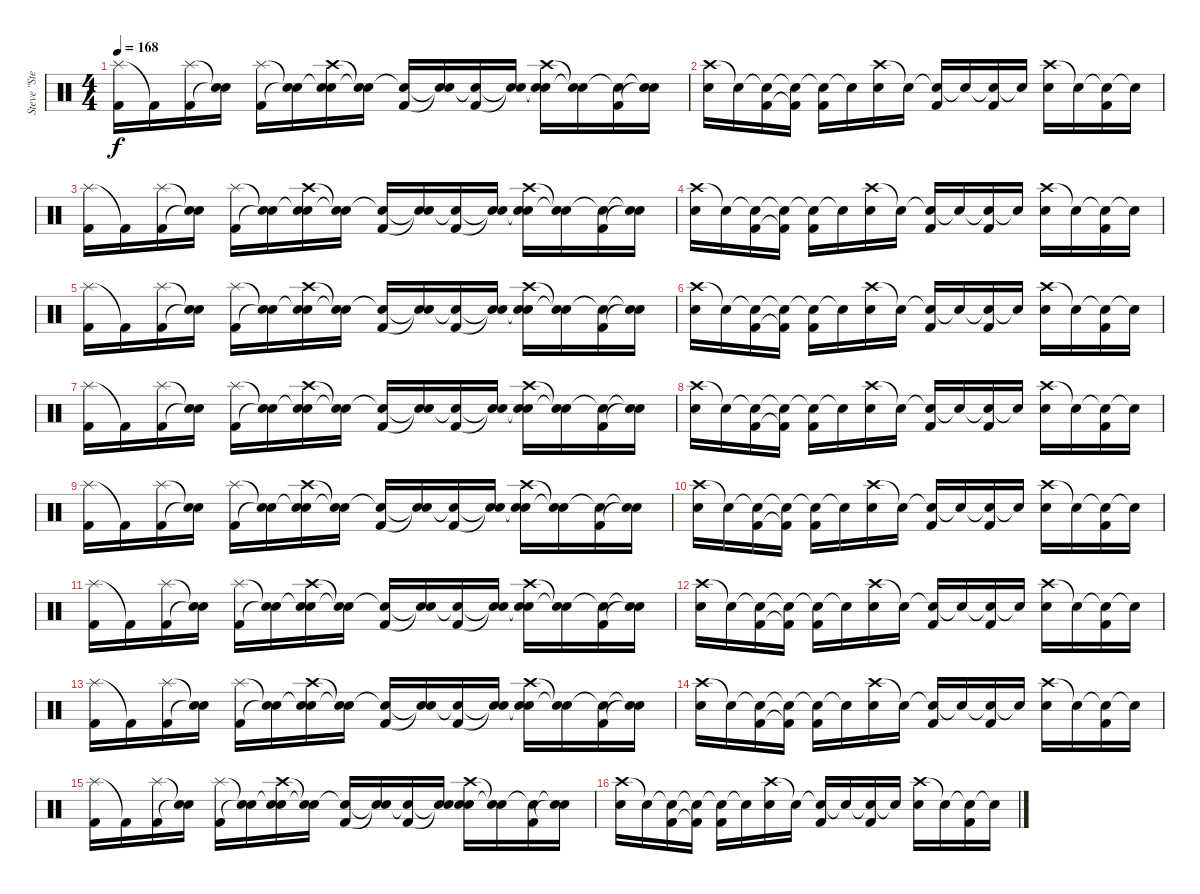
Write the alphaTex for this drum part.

\track ("Steve \"Stevo 32\" Jocz" "Steve \"Ste") {instrument percussion}
\staff {score}
\articulation defaults
\ts (4 4)
\tempo 168
\clef neutral
\ks c
("Splash (hit)" "Kick (hit) 2").16{dy f} "Kick (hit) 2"{t}.16 ("Splash (hit)" "Kick (hit) 2").16 ("Snare (hit)"{t} "Snare (hit)"{t}).16 ("Splash (hit)" "Kick (hit) 2").16 ("Snare (hit)"{t} "Snare (hit)"{t}).16 ("Crash high (hit)" "Snare (hit)"{t} "Snare (hit) 2").16 ("Snare (hit)"{t} "Snare (hit)"{t}).16 ("Snare (hit)"{t} "Kick (hit) 2").16 ("Snare (hit)"{t} "Snare (hit)"{t}).16 ("Snare (hit)"{t} "Kick (hit) 2").16 ("Snare (hit)"{t} "Snare (hit)"{t}).16 ("Crash high (hit)" "Snare (hit)"{t} "Snare (hit) 2").16 ("Snare (hit)"{t} "Snare (hit)"{t}).16 ("Snare (hit)"{t} "Kick (hit) 2").16 ("Snare (hit)"{t} "Snare (hit)"{t}).16 |
("Crash high (hit)" "Snare (hit) 2").16 "Snare (hit)"{t}.16 ("Snare (hit)"{t} "Kick (hit) 2").16 ("Snare (hit)"{t} "Kick (hit) 2"{t}).16 ("Snare (hit)"{t} "Kick (hit) 2").16 "Snare (hit)"{t}.16 ("Crash high (hit)" "Snare (hit) 2").16 "Snare (hit)"{t}.16 ("Snare (hit)"{t} "Kick (hit) 2").16 "Snare (hit)"{t}.16 ("Snare (hit)"{t} "Kick (hit) 2").16 "Snare (hit)"{t}.16 ("Crash high (hit)" "Snare (hit) 2").16 "Snare (hit)"{t}.16 ("Snare (hit)"{t} "Kick (hit) 2").16 "Snare (hit)"{t}.16 |
("Splash (hit)" "Kick (hit) 2").16 "Kick (hit) 2"{t}.16 ("Splash (hit)" "Kick (hit) 2").16 ("Snare (hit)"{t} "Snare (hit)"{t}).16 ("Splash (hit)" "Kick (hit) 2").16 ("Snare (hit)"{t} "Snare (hit)"{t}).16 ("Crash high (hit)" "Snare (hit)"{t} "Snare (hit) 2").16 ("Snare (hit)"{t} "Snare (hit)"{t}).16 ("Snare (hit)"{t} "Kick (hit) 2").16 ("Snare (hit)"{t} "Snare (hit)"{t}).16 ("Snare (hit)"{t} "Kick (hit) 2").16 ("Snare (hit)"{t} "Snare (hit)"{t}).16 ("Crash high (hit)" "Snare (hit)"{t} "Snare (hit) 2").16 ("Snare (hit)"{t} "Snare (hit)"{t}).16 ("Snare (hit)"{t} "Kick (hit) 2").16 ("Snare (hit)"{t} "Snare (hit)"{t}).16 |
("Crash high (hit)" "Snare (hit) 2").16 "Snare (hit)"{t}.16 ("Snare (hit)"{t} "Kick (hit) 2").16 ("Snare (hit)"{t} "Kick (hit) 2"{t}).16 ("Snare (hit)"{t} "Kick (hit) 2").16 "Snare (hit)"{t}.16 ("Crash high (hit)" "Snare (hit) 2").16 "Snare (hit)"{t}.16 ("Snare (hit)"{t} "Kick (hit) 2").16 "Snare (hit)"{t}.16 ("Snare (hit)"{t} "Kick (hit) 2").16 "Snare (hit)"{t}.16 ("Crash high (hit)" "Snare (hit) 2").16 "Snare (hit)"{t}.16 ("Snare (hit)"{t} "Kick (hit) 2").16 "Snare (hit)"{t}.16 |
("Splash (hit)" "Kick (hit) 2").16 "Kick (hit) 2"{t}.16 ("Splash (hit)" "Kick (hit) 2").16 ("Snare (hit)"{t} "Snare (hit)"{t}).16 ("Splash (hit)" "Kick (hit) 2").16 ("Snare (hit)"{t} "Snare (hit)"{t}).16 ("Crash high (hit)" "Snare (hit)"{t} "Snare (hit) 2").16 ("Snare (hit)"{t} "Snare (hit)"{t}).16 ("Snare (hit)"{t} "Kick (hit) 2").16 ("Snare (hit)"{t} "Snare (hit)"{t}).16 ("Snare (hit)"{t} "Kick (hit) 2").16 ("Snare (hit)"{t} "Snare (hit)"{t}).16 ("Crash high (hit)" "Snare (hit)"{t} "Snare (hit) 2").16 ("Snare (hit)"{t} "Snare (hit)"{t}).16 ("Snare (hit)"{t} "Kick (hit) 2").16 ("Snare (hit)"{t} "Snare (hit)"{t}).16 |
("Crash high (hit)" "Snare (hit) 2").16 "Snare (hit)"{t}.16 ("Snare (hit)"{t} "Kick (hit) 2").16 ("Snare (hit)"{t} "Kick (hit) 2"{t}).16 ("Snare (hit)"{t} "Kick (hit) 2").16 "Snare (hit)"{t}.16 ("Crash high (hit)" "Snare (hit) 2").16 "Snare (hit)"{t}.16 ("Snare (hit)"{t} "Kick (hit) 2").16 "Snare (hit)"{t}.16 ("Snare (hit)"{t} "Kick (hit) 2").16 "Snare (hit)"{t}.16 ("Crash high (hit)" "Snare (hit) 2").16 "Snare (hit)"{t}.16 ("Snare (hit)"{t} "Kick (hit) 2").16 "Snare (hit)"{t}.16 |
("Splash (hit)" "Kick (hit) 2").16 "Kick (hit) 2"{t}.16 ("Splash (hit)" "Kick (hit) 2").16 ("Snare (hit)"{t} "Snare (hit)"{t}).16 ("Splash (hit)" "Kick (hit) 2").16 ("Snare (hit)"{t} "Snare (hit)"{t}).16 ("Crash high (hit)" "Snare (hit)"{t} "Snare (hit) 2").16 ("Snare (hit)"{t} "Snare (hit)"{t}).16 ("Snare (hit)"{t} "Kick (hit) 2").16 ("Snare (hit)"{t} "Snare (hit)"{t}).16 ("Snare (hit)"{t} "Kick (hit) 2").16 ("Snare (hit)"{t} "Snare (hit)"{t}).16 ("Crash high (hit)" "Snare (hit)"{t} "Snare (hit) 2").16 ("Snare (hit)"{t} "Snare (hit)"{t}).16 ("Snare (hit)"{t} "Kick (hit) 2").16 ("Snare (hit)"{t} "Snare (hit)"{t}).16 |
("Crash high (hit)" "Snare (hit) 2").16 "Snare (hit)"{t}.16 ("Snare (hit)"{t} "Kick (hit) 2").16 ("Snare (hit)"{t} "Kick (hit) 2"{t}).16 ("Snare (hit)"{t} "Kick (hit) 2").16 "Snare (hit)"{t}.16 ("Crash high (hit)" "Snare (hit) 2").16 "Snare (hit)"{t}.16 ("Snare (hit)"{t} "Kick (hit) 2").16 "Snare (hit)"{t}.16 ("Snare (hit)"{t} "Kick (hit) 2").16 "Snare (hit)"{t}.16 ("Crash high (hit)" "Snare (hit) 2").16 "Snare (hit)"{t}.16 ("Snare (hit)"{t} "Kick (hit) 2").16 "Snare (hit)"{t}.16 |
("Splash (hit)" "Kick (hit) 2").16 "Kick (hit) 2"{t}.16 ("Splash (hit)" "Kick (hit) 2").16 ("Snare (hit)"{t} "Snare (hit)"{t}).16 ("Splash (hit)" "Kick (hit) 2").16 ("Snare (hit)"{t} "Snare (hit)"{t}).16 ("Crash high (hit)" "Snare (hit)"{t} "Snare (hit) 2").16 ("Snare (hit)"{t} "Snare (hit)"{t}).16 ("Snare (hit)"{t} "Kick (hit) 2").16 ("Snare (hit)"{t} "Snare (hit)"{t}).16 ("Snare (hit)"{t} "Kick (hit) 2").16 ("Snare (hit)"{t} "Snare (hit)"{t}).16 ("Crash high (hit)" "Snare (hit)"{t} "Snare (hit) 2").16 ("Snare (hit)"{t} "Snare (hit)"{t}).16 ("Snare (hit)"{t} "Kick (hit) 2").16 ("Snare (hit)"{t} "Snare (hit)"{t}).16 |
("Crash high (hit)" "Snare (hit) 2").16 "Snare (hit)"{t}.16 ("Snare (hit)"{t} "Kick (hit) 2").16 ("Snare (hit)"{t} "Kick (hit) 2"{t}).16 ("Snare (hit)"{t} "Kick (hit) 2").16 "Snare (hit)"{t}.16 ("Crash high (hit)" "Snare (hit) 2").16 "Snare (hit)"{t}.16 ("Snare (hit)"{t} "Kick (hit) 2").16 "Snare (hit)"{t}.16 ("Snare (hit)"{t} "Kick (hit) 2").16 "Snare (hit)"{t}.16 ("Crash high (hit)" "Snare (hit) 2").16 "Snare (hit)"{t}.16 ("Snare (hit)"{t} "Kick (hit) 2").16 "Snare (hit)"{t}.16 |
("Splash (hit)" "Kick (hit) 2").16 "Kick (hit) 2"{t}.16 ("Splash (hit)" "Kick (hit) 2").16 ("Snare (hit)"{t} "Snare (hit)"{t}).16 ("Splash (hit)" "Kick (hit) 2").16 ("Snare (hit)"{t} "Snare (hit)"{t}).16 ("Crash high (hit)" "Snare (hit)"{t} "Snare (hit) 2").16 ("Snare (hit)"{t} "Snare (hit)"{t}).16 ("Snare (hit)"{t} "Kick (hit) 2").16 ("Snare (hit)"{t} "Snare (hit)"{t}).16 ("Snare (hit)"{t} "Kick (hit) 2").16 ("Snare (hit)"{t} "Snare (hit)"{t}).16 ("Crash high (hit)" "Snare (hit)"{t} "Snare (hit) 2").16 ("Snare (hit)"{t} "Snare (hit)"{t}).16 ("Snare (hit)"{t} "Kick (hit) 2").16 ("Snare (hit)"{t} "Snare (hit)"{t}).16 |
("Crash high (hit)" "Snare (hit) 2").16 "Snare (hit)"{t}.16 ("Snare (hit)"{t} "Kick (hit) 2").16 ("Snare (hit)"{t} "Kick (hit) 2"{t}).16 ("Snare (hit)"{t} "Kick (hit) 2").16 "Snare (hit)"{t}.16 ("Crash high (hit)" "Snare (hit) 2").16 "Snare (hit)"{t}.16 ("Snare (hit)"{t} "Kick (hit) 2").16 "Snare (hit)"{t}.16 ("Snare (hit)"{t} "Kick (hit) 2").16 "Snare (hit)"{t}.16 ("Crash high (hit)" "Snare (hit) 2").16 "Snare (hit)"{t}.16 ("Snare (hit)"{t} "Kick (hit) 2").16 "Snare (hit)"{t}.16 |
("Splash (hit)" "Kick (hit) 2").16 "Kick (hit) 2"{t}.16 ("Splash (hit)" "Kick (hit) 2").16 ("Snare (hit)"{t} "Snare (hit)"{t}).16 ("Splash (hit)" "Kick (hit) 2").16 ("Snare (hit)"{t} "Snare (hit)"{t}).16 ("Crash high (hit)" "Snare (hit)"{t} "Snare (hit) 2").16 ("Snare (hit)"{t} "Snare (hit)"{t}).16 ("Snare (hit)"{t} "Kick (hit) 2").16 ("Snare (hit)"{t} "Snare (hit)"{t}).16 ("Snare (hit)"{t} "Kick (hit) 2").16 ("Snare (hit)"{t} "Snare (hit)"{t}).16 ("Crash high (hit)" "Snare (hit)"{t} "Snare (hit) 2").16 ("Snare (hit)"{t} "Snare (hit)"{t}).16 ("Snare (hit)"{t} "Kick (hit) 2").16 ("Snare (hit)"{t} "Snare (hit)"{t}).16 |
("Crash high (hit)" "Snare (hit) 2").16 "Snare (hit)"{t}.16 ("Snare (hit)"{t} "Kick (hit) 2").16 ("Snare (hit)"{t} "Kick (hit) 2"{t}).16 ("Snare (hit)"{t} "Kick (hit) 2").16 "Snare (hit)"{t}.16 ("Crash high (hit)" "Snare (hit) 2").16 "Snare (hit)"{t}.16 ("Snare (hit)"{t} "Kick (hit) 2").16 "Snare (hit)"{t}.16 ("Snare (hit)"{t} "Kick (hit) 2").16 "Snare (hit)"{t}.16 ("Crash high (hit)" "Snare (hit) 2").16 "Snare (hit)"{t}.16 ("Snare (hit)"{t} "Kick (hit) 2").16 "Snare (hit)"{t}.16 |
("Splash (hit)" "Kick (hit) 2").16 "Kick (hit) 2"{t}.16 ("Splash (hit)" "Kick (hit) 2").16 ("Snare (hit)"{t} "Snare (hit)"{t}).16 ("Splash (hit)" "Kick (hit) 2").16 ("Snare (hit)"{t} "Snare (hit)"{t}).16 ("Crash high (hit)" "Snare (hit)"{t} "Snare (hit) 2").16 ("Snare (hit)"{t} "Snare (hit)"{t}).16 ("Snare (hit)"{t} "Kick (hit) 2").16 ("Snare (hit)"{t} "Snare (hit)"{t}).16 ("Snare (hit)"{t} "Kick (hit) 2").16 ("Snare (hit)"{t} "Snare (hit)"{t}).16 ("Crash high (hit)" "Snare (hit)"{t} "Snare (hit) 2").16 ("Snare (hit)"{t} "Snare (hit)"{t}).16 ("Snare (hit)"{t} "Kick (hit) 2").16 ("Snare (hit)"{t} "Snare (hit)"{t}).16 |
("Crash high (hit)" "Snare (hit) 2").16 "Snare (hit)"{t}.16 ("Snare (hit)"{t} "Kick (hit) 2").16 ("Snare (hit)"{t} "Kick (hit) 2"{t}).16 ("Snare (hit)"{t} "Kick (hit) 2").16 "Snare (hit)"{t}.16 ("Crash high (hit)" "Snare (hit) 2").16 "Snare (hit)"{t}.16 ("Snare (hit)"{t} "Kick (hit) 2").16 "Snare (hit)"{t}.16 ("Snare (hit)"{t} "Kick (hit) 2").16 "Snare (hit)"{t}.16 ("Crash high (hit)" "Snare (hit) 2").16 "Snare (hit)"{t}.16 ("Snare (hit)"{t} "Kick (hit) 2").16 "Snare (hit)"{t}.16
